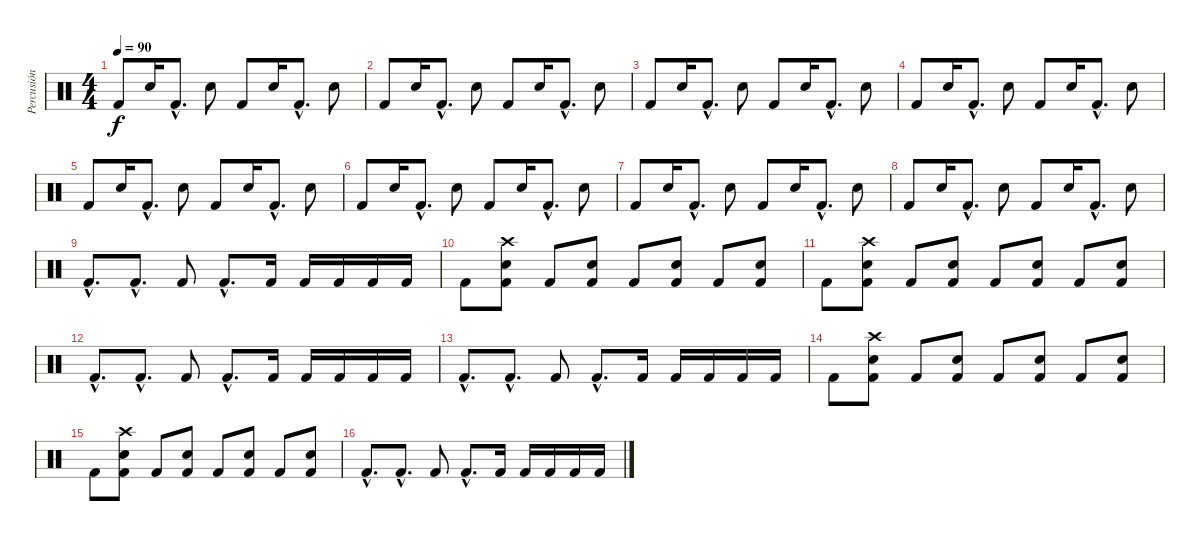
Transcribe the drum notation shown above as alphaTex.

\track ("Percusión" "Percusión") {instrument percussion}
\staff {score}
\articulation defaults
\ts (4 4)
\tempo 90
\clef neutral
\ks c "Kick (hit) 2".8{dy f} "Electric Snare (hit)".16 "Kick (hit) 2"{hac}.8{d} "Electric Snare (hit)".8 "Kick (hit) 2".8 "Electric Snare (hit)".16 "Kick (hit) 2"{hac}.8{d} "Electric Snare (hit)".8
|
"Kick (hit) 2".8 "Electric Snare (hit)".16 "Kick (hit) 2"{hac}.8{d} "Electric Snare (hit)".8 "Kick (hit) 2".8 "Electric Snare (hit)".16 "Kick (hit) 2"{hac}.8{d} "Electric Snare (hit)".8 |
"Kick (hit) 2".8 "Electric Snare (hit)".16 "Kick (hit) 2"{hac}.8{d} "Electric Snare (hit)".8 "Kick (hit) 2".8 "Electric Snare (hit)".16 "Kick (hit) 2"{hac}.8{d} "Electric Snare (hit)".8 |
"Kick (hit) 2".8 "Electric Snare (hit)".16 "Kick (hit) 2"{hac}.8{d} "Electric Snare (hit)".8 "Kick (hit) 2".8 "Electric Snare (hit)".16 "Kick (hit) 2"{hac}.8{d} "Electric Snare (hit)".8 |
"Kick (hit) 2".8 "Electric Snare (hit)".16 "Kick (hit) 2"{hac}.8{d} "Electric Snare (hit)".8 "Kick (hit) 2".8 "Electric Snare (hit)".16 "Kick (hit) 2"{hac}.8{d} "Electric Snare (hit)".8 |
"Kick (hit) 2".8 "Electric Snare (hit)".16 "Kick (hit) 2"{hac}.8{d} "Electric Snare (hit)".8 "Kick (hit) 2".8 "Electric Snare (hit)".16 "Kick (hit) 2"{hac}.8{d} "Electric Snare (hit)".8 |
"Kick (hit) 2".8 "Electric Snare (hit)".16 "Kick (hit) 2"{hac}.8{d} "Electric Snare (hit)".8 "Kick (hit) 2".8 "Electric Snare (hit)".16 "Kick (hit) 2"{hac}.8{d} "Electric Snare (hit)".8 |
"Kick (hit) 2".8 "Electric Snare (hit)".16 "Kick (hit) 2"{hac}.8{d} "Electric Snare (hit)".8 "Kick (hit) 2".8 "Electric Snare (hit)".16 "Kick (hit) 2"{hac}.8{d} "Electric Snare (hit)".8 |
"Kick (hit) 2"{hac}.8{d} "Kick (hit) 2"{hac}.8{d} "Kick (hit) 2".8 "Kick (hit) 2"{hac}.8{d} "Kick (hit) 2".16 "Kick (hit) 2".16 "Kick (hit) 2".16 "Kick (hit) 2".16 "Kick (hit) 2".16 |
"Kick (hit) 2".8 ("Electric Snare (hit)" "Kick (hit) 2" "Crash high (hit)").8 "Kick (hit) 2".8 ("Electric Snare (hit)" "Kick (hit) 2").8 "Kick (hit) 2".8 ("Electric Snare (hit)" "Kick (hit) 2").8 "Kick (hit) 2".8 ("Electric Snare (hit)" "Kick (hit) 2").8 |
"Kick (hit) 2".8 ("Electric Snare (hit)" "Kick (hit) 2" "Crash high (hit)").8 "Kick (hit) 2".8 ("Electric Snare (hit)" "Kick (hit) 2").8 "Kick (hit) 2".8 ("Electric Snare (hit)" "Kick (hit) 2").8 "Kick (hit) 2".8 ("Electric Snare (hit)" "Kick (hit) 2").8 |
"Kick (hit) 2"{hac}.8{d} "Kick (hit) 2"{hac}.8{d} "Kick (hit) 2".8 "Kick (hit) 2"{hac}.8{d} "Kick (hit) 2".16 "Kick (hit) 2".16 "Kick (hit) 2".16 "Kick (hit) 2".16 "Kick (hit) 2".16 |
"Kick (hit) 2"{hac}.8{d} "Kick (hit) 2"{hac}.8{d} "Kick (hit) 2".8 "Kick (hit) 2"{hac}.8{d} "Kick (hit) 2".16 "Kick (hit) 2".16 "Kick (hit) 2".16 "Kick (hit) 2".16 "Kick (hit) 2".16 |
"Kick (hit) 2".8 ("Electric Snare (hit)" "Kick (hit) 2" "Crash high (hit)").8 "Kick (hit) 2".8 ("Electric Snare (hit)" "Kick (hit) 2").8 "Kick (hit) 2".8 ("Electric Snare (hit)" "Kick (hit) 2").8 "Kick (hit) 2".8 ("Electric Snare (hit)" "Kick (hit) 2").8 |
"Kick (hit) 2".8 ("Electric Snare (hit)" "Kick (hit) 2" "Crash high (hit)").8 "Kick (hit) 2".8 ("Electric Snare (hit)" "Kick (hit) 2").8 "Kick (hit) 2".8 ("Electric Snare (hit)" "Kick (hit) 2").8 "Kick (hit) 2".8 ("Electric Snare (hit)" "Kick (hit) 2").8 |
"Kick (hit) 2"{hac}.8{d} "Kick (hit) 2"{hac}.8{d} "Kick (hit) 2".8 "Kick (hit) 2"{hac}.8{d} "Kick (hit) 2".16 "Kick (hit) 2".16 "Kick (hit) 2".16 "Kick (hit) 2".16 "Kick (hit) 2".16
